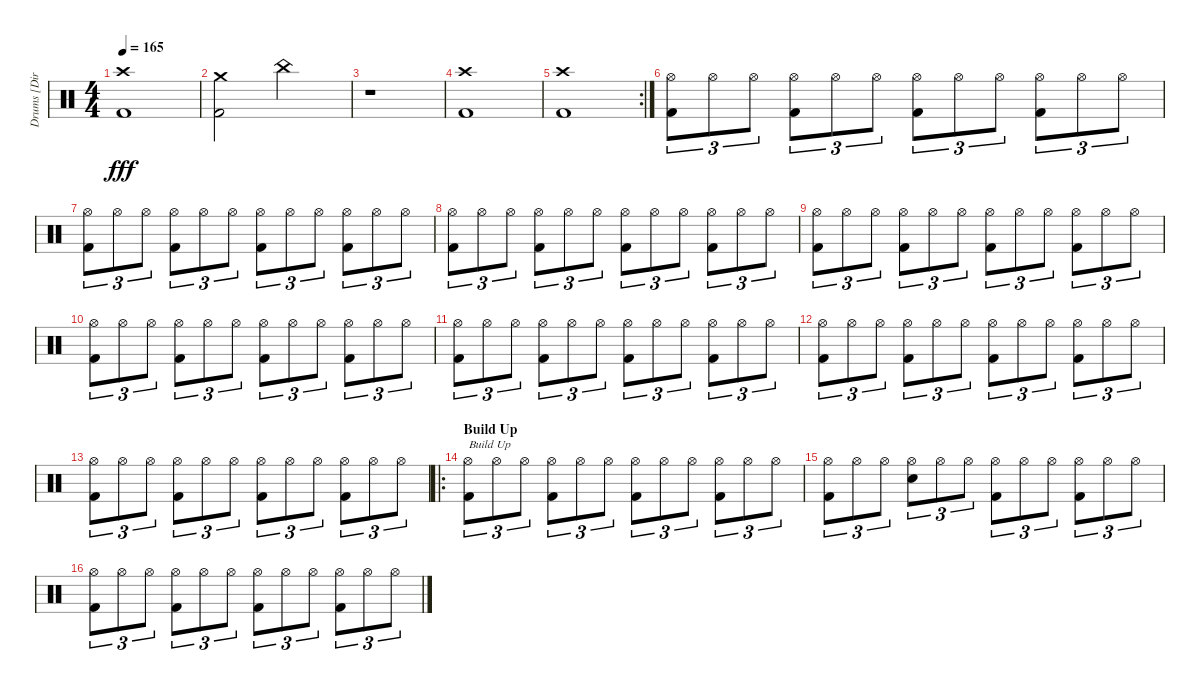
\track ("Drums [Dirge Rep]" "Drums [Dir") {instrument percussion}
\staff {score}
\articulation defaults
\ts (4 4)
\tempo 165
\clef neutral
\ks c
("Crash high (hit)" "Kick (hit) 2").1{dy fff} |
("Crash medium (hit)" "Kick (hit) 2").2 "China (hit)".2 |
r.1 |
("Crash high (hit)" "Kick (hit) 2").1 |
\rc 2
("Crash high (hit)" "Kick (hit) 2").1 |
("Hi-Hat (open)" "Kick (hit) 2").8{tu (3 2)} "Hi-Hat (open)".8{tu (3 2)} "Hi-Hat (open)".8{tu (3 2)} ("Hi-Hat (open)" "Kick (hit) 2").8{tu (3 2)} "Hi-Hat (open)".8{tu (3 2)} "Hi-Hat (open)".8{tu (3 2)} ("Hi-Hat (open)" "Kick (hit) 2").8{tu (3 2)} "Hi-Hat (open)".8{tu (3 2)} "Hi-Hat (open)".8{tu (3 2)} ("Hi-Hat (open)" "Kick (hit) 2").8{tu (3 2)} "Hi-Hat (open)".8{tu (3 2)} "Hi-Hat (open)".8{tu (3 2)} |
("Hi-Hat (open)" "Kick (hit) 2").8{tu (3 2)} "Hi-Hat (open)".8{tu (3 2)} "Hi-Hat (open)".8{tu (3 2)} ("Hi-Hat (open)" "Kick (hit) 2").8{tu (3 2)} "Hi-Hat (open)".8{tu (3 2)} "Hi-Hat (open)".8{tu (3 2)} ("Hi-Hat (open)" "Kick (hit) 2").8{tu (3 2)} "Hi-Hat (open)".8{tu (3 2)} "Hi-Hat (open)".8{tu (3 2)} ("Hi-Hat (open)" "Kick (hit) 2").8{tu (3 2)} "Hi-Hat (open)".8{tu (3 2)} "Hi-Hat (open)".8{tu (3 2)} |
("Hi-Hat (open)" "Kick (hit) 2").8{tu (3 2)} "Hi-Hat (open)".8{tu (3 2)} "Hi-Hat (open)".8{tu (3 2)} ("Hi-Hat (open)" "Kick (hit) 2").8{tu (3 2)} "Hi-Hat (open)".8{tu (3 2)} "Hi-Hat (open)".8{tu (3 2)} ("Hi-Hat (open)" "Kick (hit) 2").8{tu (3 2)} "Hi-Hat (open)".8{tu (3 2)} "Hi-Hat (open)".8{tu (3 2)} ("Hi-Hat (open)" "Kick (hit) 2").8{tu (3 2)} "Hi-Hat (open)".8{tu (3 2)} "Hi-Hat (open)".8{tu (3 2)} |
("Hi-Hat (open)" "Kick (hit) 2").8{tu (3 2)} "Hi-Hat (open)".8{tu (3 2)} "Hi-Hat (open)".8{tu (3 2)} ("Hi-Hat (open)" "Kick (hit) 2").8{tu (3 2)} "Hi-Hat (open)".8{tu (3 2)} "Hi-Hat (open)".8{tu (3 2)} ("Hi-Hat (open)" "Kick (hit) 2").8{tu (3 2)} "Hi-Hat (open)".8{tu (3 2)} "Hi-Hat (open)".8{tu (3 2)} ("Hi-Hat (open)" "Kick (hit) 2").8{tu (3 2)} "Hi-Hat (open)".8{tu (3 2)} "Hi-Hat (open)".8{tu (3 2)} |
("Hi-Hat (open)" "Kick (hit) 2").8{tu (3 2)} "Hi-Hat (open)".8{tu (3 2)} "Hi-Hat (open)".8{tu (3 2)} ("Hi-Hat (open)" "Kick (hit) 2").8{tu (3 2)} "Hi-Hat (open)".8{tu (3 2)} "Hi-Hat (open)".8{tu (3 2)} ("Hi-Hat (open)" "Kick (hit) 2").8{tu (3 2)} "Hi-Hat (open)".8{tu (3 2)} "Hi-Hat (open)".8{tu (3 2)} ("Hi-Hat (open)" "Kick (hit) 2").8{tu (3 2)} "Hi-Hat (open)".8{tu (3 2)} "Hi-Hat (open)".8{tu (3 2)} |
("Hi-Hat (open)" "Kick (hit) 2").8{tu (3 2)} "Hi-Hat (open)".8{tu (3 2)} "Hi-Hat (open)".8{tu (3 2)} ("Hi-Hat (open)" "Kick (hit) 2").8{tu (3 2)} "Hi-Hat (open)".8{tu (3 2)} "Hi-Hat (open)".8{tu (3 2)} ("Hi-Hat (open)" "Kick (hit) 2").8{tu (3 2)} "Hi-Hat (open)".8{tu (3 2)} "Hi-Hat (open)".8{tu (3 2)} ("Hi-Hat (open)" "Kick (hit) 2").8{tu (3 2)} "Hi-Hat (open)".8{tu (3 2)} "Hi-Hat (open)".8{tu (3 2)} |
("Hi-Hat (open)" "Kick (hit) 2").8{tu (3 2)} "Hi-Hat (open)".8{tu (3 2)} "Hi-Hat (open)".8{tu (3 2)} ("Hi-Hat (open)" "Kick (hit) 2").8{tu (3 2)} "Hi-Hat (open)".8{tu (3 2)} "Hi-Hat (open)".8{tu (3 2)} ("Hi-Hat (open)" "Kick (hit) 2").8{tu (3 2)} "Hi-Hat (open)".8{tu (3 2)} "Hi-Hat (open)".8{tu (3 2)} ("Hi-Hat (open)" "Kick (hit) 2").8{tu (3 2)} "Hi-Hat (open)".8{tu (3 2)} "Hi-Hat (open)".8{tu (3 2)} |
("Hi-Hat (open)" "Kick (hit) 2").8{tu (3 2)} "Hi-Hat (open)".8{tu (3 2)} "Hi-Hat (open)".8{tu (3 2)} ("Hi-Hat (open)" "Kick (hit) 2").8{tu (3 2)} "Hi-Hat (open)".8{tu (3 2)} "Hi-Hat (open)".8{tu (3 2)} ("Hi-Hat (open)" "Kick (hit) 2").8{tu (3 2)} "Hi-Hat (open)".8{tu (3 2)} "Hi-Hat (open)".8{tu (3 2)} ("Hi-Hat (open)" "Kick (hit) 2").8{tu (3 2)} "Hi-Hat (open)".8{tu (3 2)} "Hi-Hat (open)".8{tu (3 2)} |
\ro
\section ("" "Build Up")
("Hi-Hat (open)" "Kick (hit) 2").8{tu (3 2) txt "Build Up"} "Hi-Hat (open)".8{tu (3 2)} "Hi-Hat (open)".8{tu (3 2)} ("Hi-Hat (open)" "Kick (hit) 2").8{tu (3 2)} "Hi-Hat (open)".8{tu (3 2)} "Hi-Hat (open)".8{tu (3 2)} ("Hi-Hat (open)" "Kick (hit) 2").8{tu (3 2)} "Hi-Hat (open)".8{tu (3 2)} "Hi-Hat (open)".8{tu (3 2)} ("Hi-Hat (open)" "Kick (hit) 2").8{tu (3 2)} "Hi-Hat (open)".8{tu (3 2)} "Hi-Hat (open)".8{tu (3 2)} |
("Hi-Hat (open)" "Kick (hit) 2").8{tu (3 2)} "Hi-Hat (open)".8{tu (3 2)} "Hi-Hat (open)".8{tu (3 2)} ("Hi-Hat (open)" "Electric Snare (hit)").8{tu (3 2)} "Hi-Hat (open)".8{tu (3 2)} "Hi-Hat (open)".8{tu (3 2)} ("Hi-Hat (open)" "Kick (hit) 2").8{tu (3 2)} "Hi-Hat (open)".8{tu (3 2)} "Hi-Hat (open)".8{tu (3 2)} ("Hi-Hat (open)" "Kick (hit) 2").8{tu (3 2)} "Hi-Hat (open)".8{tu (3 2)} "Hi-Hat (open)".8{tu (3 2)} |
("Hi-Hat (open)" "Kick (hit) 2").8{tu (3 2)} "Hi-Hat (open)".8{tu (3 2)} "Hi-Hat (open)".8{tu (3 2)} ("Hi-Hat (open)" "Kick (hit) 2").8{tu (3 2)} "Hi-Hat (open)".8{tu (3 2)} "Hi-Hat (open)".8{tu (3 2)} ("Hi-Hat (open)" "Kick (hit) 2").8{tu (3 2)} "Hi-Hat (open)".8{tu (3 2)} "Hi-Hat (open)".8{tu (3 2)} ("Hi-Hat (open)" "Kick (hit) 2").8{tu (3 2)} "Hi-Hat (open)".8{tu (3 2)} "Hi-Hat (open)".8{tu (3 2)}
